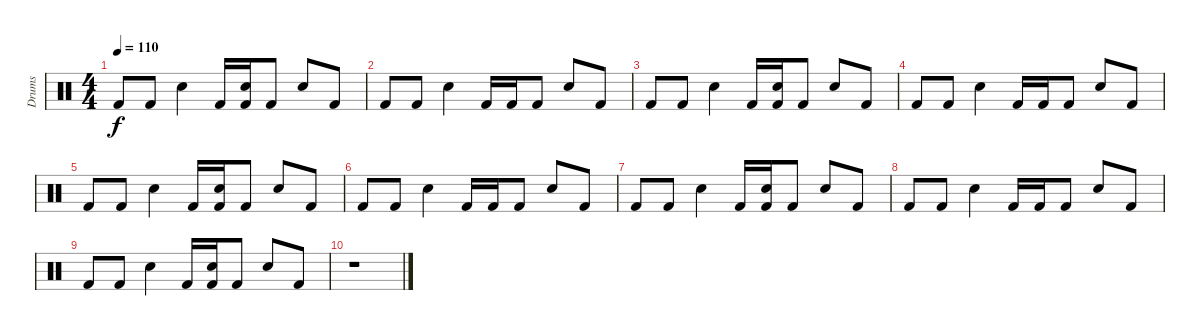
\track ("Drums" "Drums") {instrument percussion}
\staff {score}
\articulation defaults
\ts (4 4)
\tempo 110
\clef neutral
\ks c "Kick (hit) 2".8{dy f} "Kick (hit) 2".8 "Electric Snare (hit)".4 "Kick (hit) 2".16
("Electric Snare (hit)" "Kick (hit) 2").16 "Kick (hit) 2".8 "Electric Snare (hit)".8 "Kick (hit) 2".8 |
"Kick (hit) 2".8 "Kick (hit) 2".8 "Electric Snare (hit)".4 "Kick (hit) 2".16 "Kick (hit) 2".16 "Kick (hit) 2".8 "Electric Snare (hit)".8 "Kick (hit) 2".8 |
"Kick (hit) 2".8 "Kick (hit) 2".8 "Electric Snare (hit)".4 "Kick (hit) 2".16 ("Electric Snare (hit)" "Kick (hit) 2").16 "Kick (hit) 2".8 "Electric Snare (hit)".8 "Kick (hit) 2".8 |
"Kick (hit) 2".8 "Kick (hit) 2".8 "Electric Snare (hit)".4 "Kick (hit) 2".16 "Kick (hit) 2".16 "Kick (hit) 2".8 "Electric Snare (hit)".8 "Kick (hit) 2".8 |
"Kick (hit) 2".8 "Kick (hit) 2".8 "Electric Snare (hit)".4 "Kick (hit) 2".16 ("Electric Snare (hit)" "Kick (hit) 2").16 "Kick (hit) 2".8 "Electric Snare (hit)".8 "Kick (hit) 2".8 |
"Kick (hit) 2".8 "Kick (hit) 2".8 "Electric Snare (hit)".4 "Kick (hit) 2".16 "Kick (hit) 2".16 "Kick (hit) 2".8 "Electric Snare (hit)".8 "Kick (hit) 2".8 |
"Kick (hit) 2".8 "Kick (hit) 2".8 "Electric Snare (hit)".4 "Kick (hit) 2".16 ("Electric Snare (hit)" "Kick (hit) 2").16 "Kick (hit) 2".8 "Electric Snare (hit)".8 "Kick (hit) 2".8 |
"Kick (hit) 2".8 "Kick (hit) 2".8 "Electric Snare (hit)".4 "Kick (hit) 2".16 "Kick (hit) 2".16 "Kick (hit) 2".8 "Electric Snare (hit)".8 "Kick (hit) 2".8 |
"Kick (hit) 2".8 "Kick (hit) 2".8 "Electric Snare (hit)".4 "Kick (hit) 2".16 ("Electric Snare (hit)" "Kick (hit) 2").16 "Kick (hit) 2".8 "Electric Snare (hit)".8 "Kick (hit) 2".8 |
r.1
